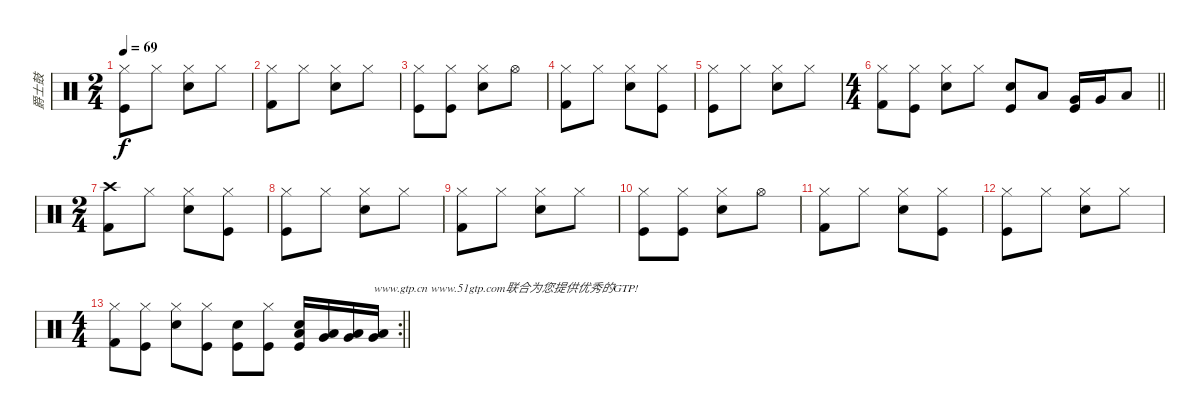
\track ("爵士鼓" "爵士鼓") {instrument percussion}
\staff {score}
\articulation defaults
\ts (2 4)
\tempo 69
\clef neutral
\ks c
("Hi-Hat (closed)" "Kick (hit)").8{dy f} "Hi-Hat (closed)".8 ("Hi-Hat (closed)" "Snare (hit) 2").8 "Hi-Hat (closed)".8 |
("Hi-Hat (closed)" "Kick (hit) 2").8 "Hi-Hat (closed)".8 ("Hi-Hat (closed)" "Snare (hit) 2").8 "Hi-Hat (closed)".8 |
("Hi-Hat (closed)" "Kick (hit)").8 ("Hi-Hat (closed)" "Kick (hit)").8 ("Hi-Hat (closed)" "Snare (hit) 2").8 "Hi-Hat (open)".8 |
("Hi-Hat (closed)" "Kick (hit) 2").8 "Hi-Hat (closed)".8 ("Hi-Hat (closed)" "Snare (hit) 2").8 ("Hi-Hat (closed)" "Kick (hit)").8 |
("Hi-Hat (closed)" "Kick (hit)").8 "Hi-Hat (closed)".8 ("Hi-Hat (closed)" "Snare (hit) 2").8 "Hi-Hat (closed)".8 |
\ts (4 4)
\barLineRight lightlight
("Hi-Hat (closed)" "Kick (hit) 2").8 ("Hi-Hat (closed)" "Kick (hit)").8 ("Hi-Hat (closed)" "Snare (hit) 2").8 "Hi-Hat (closed)".8 ("Snare (hit) 2" "Kick (hit)").8 "Low Tom (hit)".8 ("Very Low Tom (hit)" "Kick (hit)").16 "Very Low Tom (hit)".16 "Low Floor Tom (hit)".8 |
\ts (2 4)
("Crash high (hit)" "Kick (hit) 2").8 "Hi-Hat (closed)".8 ("Hi-Hat (closed)" "Snare (hit) 2").8 ("Hi-Hat (closed)" "Kick (hit)").8 |
("Hi-Hat (closed)" "Kick (hit)").8 "Hi-Hat (closed)".8 ("Hi-Hat (closed)" "Snare (hit) 2").8 "Hi-Hat (closed)".8 |
("Hi-Hat (closed)" "Kick (hit) 2").8 "Hi-Hat (closed)".8 ("Hi-Hat (closed)" "Snare (hit) 2").8 "Hi-Hat (closed)".8 |
("Hi-Hat (closed)" "Kick (hit)").8 ("Hi-Hat (closed)" "Kick (hit)").8 ("Hi-Hat (closed)" "Snare (hit) 2").8 "Hi-Hat (open)".8 |
("Hi-Hat (closed)" "Kick (hit) 2").8 "Hi-Hat (closed)".8 ("Hi-Hat (closed)" "Snare (hit) 2").8 ("Hi-Hat (closed)" "Kick (hit)").8 |
("Hi-Hat (closed)" "Kick (hit)").8 "Hi-Hat (closed)".8 ("Hi-Hat (closed)" "Snare (hit) 2").8 "Hi-Hat (closed)".8 |
\rc 2
\ts (4 4)
\barLineRight lightlight
("Hi-Hat (closed)" "Kick (hit) 2").8 ("Hi-Hat (closed)" "Kick (hit)").8 ("Hi-Hat (closed)" "Snare (hit) 2").8 ("Hi-Hat (closed)" "Kick (hit)").8 ("Snare (hit) 2" "Kick (hit)").8 ("Hi-Hat (closed)" "Kick (hit)").8 ("Low Floor Tom (hit)" "Snare (hit) 2" "Kick (hit)").16 ("Very Low Tom (hit)" "Low Tom (hit)").16 ("Very Low Tom (hit)" "Low Tom (hit)").16 ("Very Low Tom (hit)" "Low Tom (hit)").16{txt "www.gtp.cn www.51gtp.com联合为您提供优秀的GTP!"}
